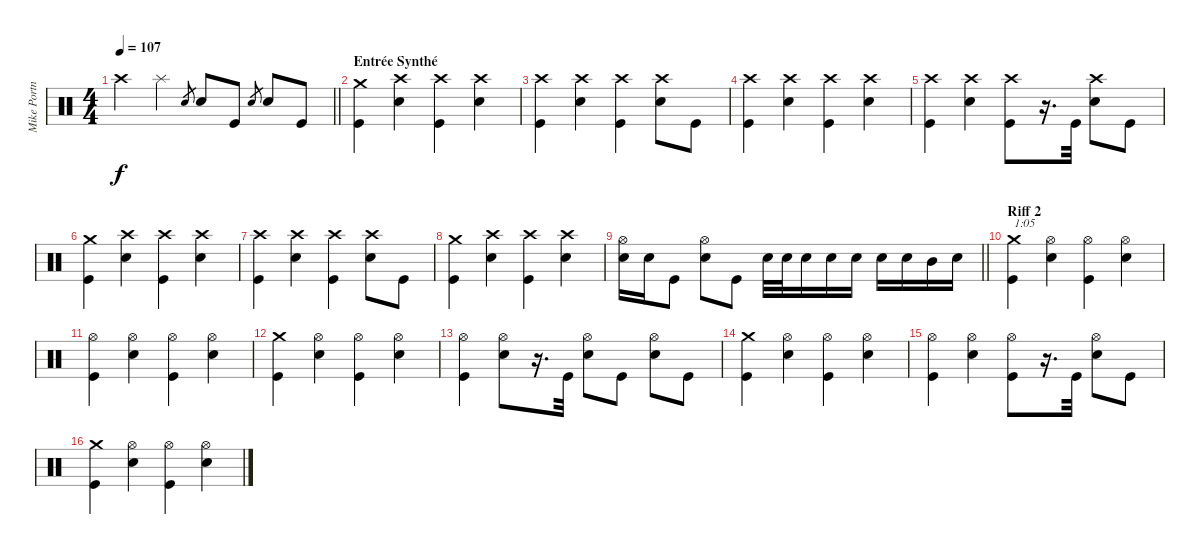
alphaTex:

\track ("Mike Portnoy" "Mike Portn") {instrument percussion}
\staff {score}
\articulation defaults
\ts (4 4)
\tempo 107
\clef neutral
\barLineRight lightlight
\ks c "Crash high (hit)".4{dy f} "Splash (hit)".4 "Snare (hit) 2".8{gr} "Snare (hit) 2".8 "Kick (hit)".8 "Snare (hit) 2".8{gr} "Snare (hit) 2".8 "Kick (hit)".8
|
\section ("" "Entrée Synthé")
("Crash medium (hit)" "Kick (hit)").4 ("Crash high (hit)" "Snare (hit) 2").4 ("Crash high (hit)" "Kick (hit)").4 ("Crash high (hit)" "Snare (hit) 2").4 |
("Crash high (hit)" "Kick (hit)").4 ("Crash high (hit)" "Snare (hit) 2").4 ("Crash high (hit)" "Kick (hit)").4 ("Crash high (hit)" "Snare (hit) 2").8 "Kick (hit)".8 |
("Crash high (hit)" "Kick (hit)").4 ("Crash high (hit)" "Snare (hit) 2").4 ("Crash high (hit)" "Kick (hit)").4 ("Crash high (hit)" "Snare (hit) 2").4 |
("Crash high (hit)" "Kick (hit)").4 ("Crash high (hit)" "Snare (hit) 2").4 ("Crash high (hit)" "Kick (hit)").8 r.16{d} "Kick (hit)".32 ("Crash high (hit)" "Snare (hit) 2").8 "Kick (hit)".8 |
("Crash medium (hit)" "Kick (hit)").4 ("Crash high (hit)" "Snare (hit) 2").4 ("Crash high (hit)" "Kick (hit)").4 ("Crash high (hit)" "Snare (hit) 2").4 |
("Crash high (hit)" "Kick (hit)").4 ("Crash high (hit)" "Snare (hit) 2").4 ("Crash high (hit)" "Kick (hit)").4 ("Crash high (hit)" "Snare (hit) 2").8 "Kick (hit)".8 |
("Crash medium (hit)" "Kick (hit)").4 ("Crash high (hit)" "Snare (hit) 2").4 ("Crash high (hit)" "Kick (hit)").4 ("Crash high (hit)" "Snare (hit) 2").4 |
\barLineRight lightlight
("Hi-Hat (open)" "Snare (hit) 2").16 "Snare (hit) 2".16 "Kick (hit)".8 ("Hi-Hat (open)" "Snare (hit) 2").8 "Kick (hit)".8 "Snare (hit) 2".32 "Snare (hit) 2".32 "Snare (hit) 2".16 "Snare (hit) 2".16 "Snare (hit) 2".16 "Snare (hit) 2".16 "Snare (hit) 2".16 "Mid Tom (hit)".16 "Snare (hit) 2".16 |
\section ("" "Riff 2")
("Crash medium (hit)" "Kick (hit)").4{txt "1:05"} ("Hi-Hat (open)" "Snare (hit) 2").4 ("Hi-Hat (open)" "Kick (hit)").4 ("Hi-Hat (open)" "Snare (hit) 2").4 |
("Hi-Hat (open)" "Kick (hit)").4 ("Hi-Hat (open)" "Snare (hit) 2").4 ("Hi-Hat (open)" "Kick (hit)").4 ("Hi-Hat (open)" "Snare (hit) 2").4 |
("Crash medium (hit)" "Kick (hit)").4 ("Hi-Hat (open)" "Snare (hit) 2").4 ("Hi-Hat (open)" "Kick (hit)").4 ("Hi-Hat (open)" "Snare (hit) 2").4 |
("Hi-Hat (open)" "Kick (hit)").4 ("Hi-Hat (open)" "Snare (hit) 2").8 r.16{d} "Kick (hit)".32 ("Hi-Hat (open)" "Snare (hit) 2").8 "Kick (hit)".8 ("Hi-Hat (open)" "Snare (hit) 2").8 "Kick (hit)".8 |
("Crash medium (hit)" "Kick (hit)").4 ("Hi-Hat (open)" "Snare (hit) 2").4 ("Hi-Hat (open)" "Kick (hit)").4 ("Hi-Hat (open)" "Snare (hit) 2").4 |
("Hi-Hat (open)" "Kick (hit)").4 ("Hi-Hat (open)" "Snare (hit) 2").4 ("Hi-Hat (open)" "Kick (hit)").8 r.16{d} "Kick (hit)".32 ("Hi-Hat (open)" "Snare (hit) 2").8 "Kick (hit)".8 |
("Crash medium (hit)" "Kick (hit)").4 ("Hi-Hat (open)" "Snare (hit) 2").4 ("Hi-Hat (open)" "Kick (hit)").4 ("Hi-Hat (open)" "Snare (hit) 2").4
